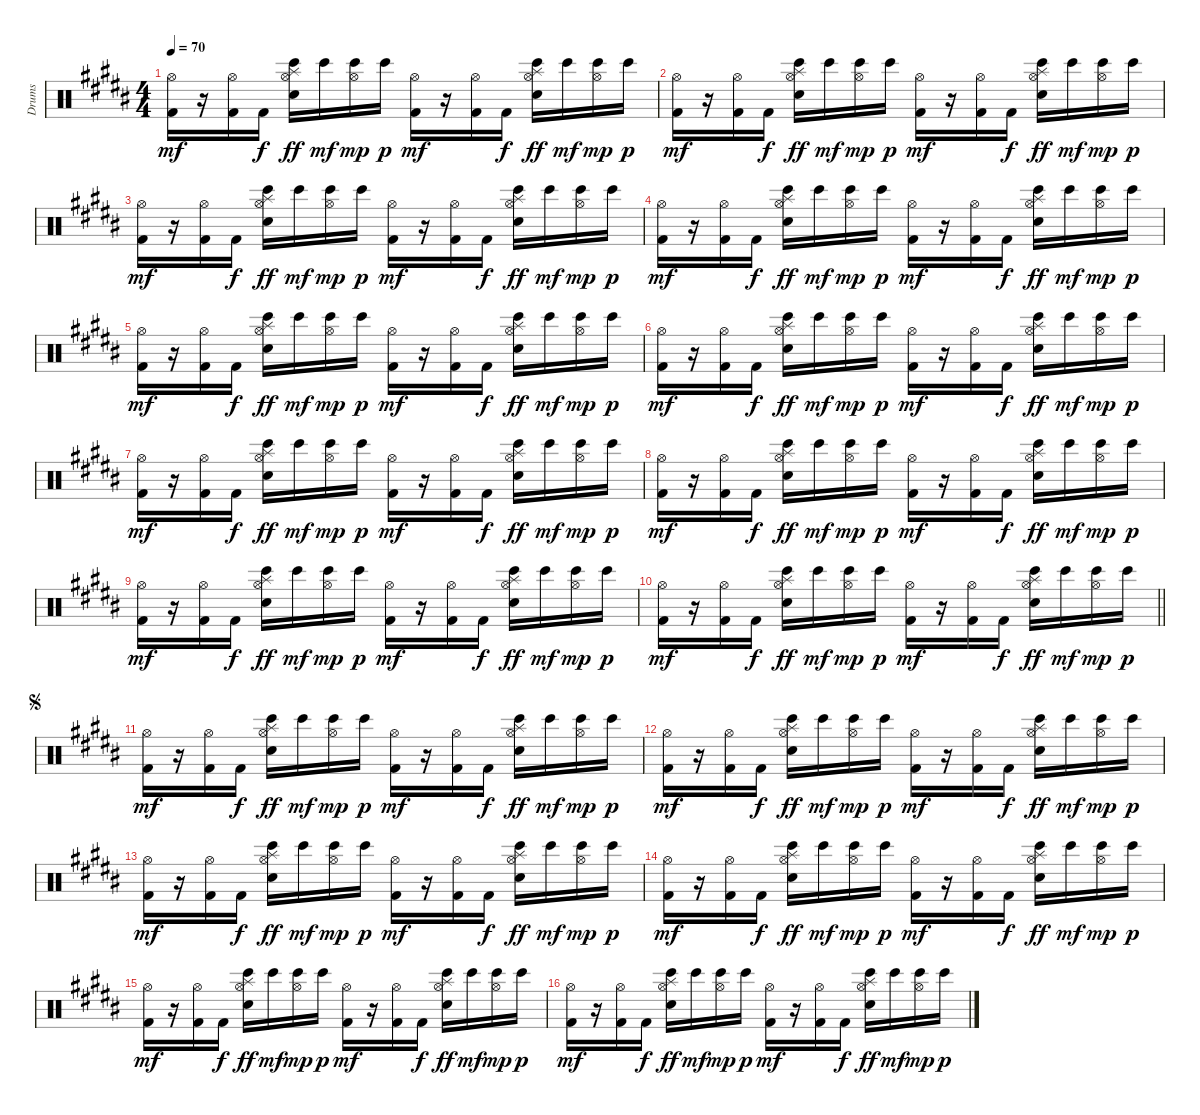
\track ("Drums" "Drums") {instrument percussion}
\staff {score}
\articulation defaults
\ts (4 4)
\tempo 70
\clef neutral
\ks b
("Hi-Hat (open)" "Kick (hit) 2").16{dy mf} r.16 ("Hi-Hat (open)" "Kick (hit) 2").16 "Kick (hit) 2".16{dy f} ("Hi-Hat (open)" "Splash (hit)" "Snare (hit) 2" "Bongo High (hit)").16{dy ff} "Bongo High (hit)".16{dy mf} ("Hi-Hat (open)" "Bongo High (hit)").16{dy mp} "Bongo High (hit)".16{dy p} ("Hi-Hat (open)" "Kick (hit) 2").16{dy mf} r.16 ("Hi-Hat (open)" "Kick (hit) 2").16 "Kick (hit) 2".16{dy f} ("Hi-Hat (open)" "Splash (hit)" "Snare (hit) 2" "Bongo High (hit)").16{dy ff} "Bongo High (hit)".16{dy mf} ("Hi-Hat (open)" "Bongo High (hit)").16{dy mp} "Bongo High (hit)".16{dy p} |
("Hi-Hat (open)" "Kick (hit) 2").16{dy mf} r.16 ("Hi-Hat (open)" "Kick (hit) 2").16 "Kick (hit) 2".16{dy f} ("Hi-Hat (open)" "Splash (hit)" "Snare (hit) 2" "Bongo High (hit)").16{dy ff} "Bongo High (hit)".16{dy mf} ("Hi-Hat (open)" "Bongo High (hit)").16{dy mp} "Bongo High (hit)".16{dy p} ("Hi-Hat (open)" "Kick (hit) 2").16{dy mf} r.16 ("Hi-Hat (open)" "Kick (hit) 2").16 "Kick (hit) 2".16{dy f} ("Hi-Hat (open)" "Splash (hit)" "Snare (hit) 2" "Bongo High (hit)").16{dy ff} "Bongo High (hit)".16{dy mf} ("Hi-Hat (open)" "Bongo High (hit)").16{dy mp} "Bongo High (hit)".16{dy p} |
("Hi-Hat (open)" "Kick (hit) 2").16{dy mf} r.16 ("Hi-Hat (open)" "Kick (hit) 2").16 "Kick (hit) 2".16{dy f} ("Hi-Hat (open)" "Splash (hit)" "Snare (hit) 2" "Bongo High (hit)").16{dy ff} "Bongo High (hit)".16{dy mf} ("Hi-Hat (open)" "Bongo High (hit)").16{dy mp} "Bongo High (hit)".16{dy p} ("Hi-Hat (open)" "Kick (hit) 2").16{dy mf} r.16 ("Hi-Hat (open)" "Kick (hit) 2").16 "Kick (hit) 2".16{dy f} ("Hi-Hat (open)" "Splash (hit)" "Snare (hit) 2" "Bongo High (hit)").16{dy ff} "Bongo High (hit)".16{dy mf} ("Hi-Hat (open)" "Bongo High (hit)").16{dy mp} "Bongo High (hit)".16{dy p} |
("Hi-Hat (open)" "Kick (hit) 2").16{dy mf} r.16 ("Hi-Hat (open)" "Kick (hit) 2").16 "Kick (hit) 2".16{dy f} ("Hi-Hat (open)" "Splash (hit)" "Snare (hit) 2" "Bongo High (hit)").16{dy ff} "Bongo High (hit)".16{dy mf} ("Hi-Hat (open)" "Bongo High (hit)").16{dy mp} "Bongo High (hit)".16{dy p} ("Hi-Hat (open)" "Kick (hit) 2").16{dy mf} r.16 ("Hi-Hat (open)" "Kick (hit) 2").16 "Kick (hit) 2".16{dy f} ("Hi-Hat (open)" "Splash (hit)" "Snare (hit) 2" "Bongo High (hit)").16{dy ff} "Bongo High (hit)".16{dy mf} ("Hi-Hat (open)" "Bongo High (hit)").16{dy mp} "Bongo High (hit)".16{dy p} |
("Hi-Hat (open)" "Kick (hit) 2").16{dy mf} r.16 ("Hi-Hat (open)" "Kick (hit) 2").16 "Kick (hit) 2".16{dy f} ("Hi-Hat (open)" "Splash (hit)" "Snare (hit) 2" "Bongo High (hit)").16{dy ff} "Bongo High (hit)".16{dy mf} ("Hi-Hat (open)" "Bongo High (hit)").16{dy mp} "Bongo High (hit)".16{dy p} ("Hi-Hat (open)" "Kick (hit) 2").16{dy mf} r.16 ("Hi-Hat (open)" "Kick (hit) 2").16 "Kick (hit) 2".16{dy f} ("Hi-Hat (open)" "Splash (hit)" "Snare (hit) 2" "Bongo High (hit)").16{dy ff} "Bongo High (hit)".16{dy mf} ("Hi-Hat (open)" "Bongo High (hit)").16{dy mp} "Bongo High (hit)".16{dy p} |
("Hi-Hat (open)" "Kick (hit) 2").16{dy mf} r.16 ("Hi-Hat (open)" "Kick (hit) 2").16 "Kick (hit) 2".16{dy f} ("Hi-Hat (open)" "Splash (hit)" "Snare (hit) 2" "Bongo High (hit)").16{dy ff} "Bongo High (hit)".16{dy mf} ("Hi-Hat (open)" "Bongo High (hit)").16{dy mp} "Bongo High (hit)".16{dy p} ("Hi-Hat (open)" "Kick (hit) 2").16{dy mf} r.16 ("Hi-Hat (open)" "Kick (hit) 2").16 "Kick (hit) 2".16{dy f} ("Hi-Hat (open)" "Splash (hit)" "Snare (hit) 2" "Bongo High (hit)").16{dy ff} "Bongo High (hit)".16{dy mf} ("Hi-Hat (open)" "Bongo High (hit)").16{dy mp} "Bongo High (hit)".16{dy p} |
("Hi-Hat (open)" "Kick (hit) 2").16{dy mf} r.16 ("Hi-Hat (open)" "Kick (hit) 2").16 "Kick (hit) 2".16{dy f} ("Hi-Hat (open)" "Splash (hit)" "Snare (hit) 2" "Bongo High (hit)").16{dy ff} "Bongo High (hit)".16{dy mf} ("Hi-Hat (open)" "Bongo High (hit)").16{dy mp} "Bongo High (hit)".16{dy p} ("Hi-Hat (open)" "Kick (hit) 2").16{dy mf} r.16 ("Hi-Hat (open)" "Kick (hit) 2").16 "Kick (hit) 2".16{dy f} ("Hi-Hat (open)" "Splash (hit)" "Snare (hit) 2" "Bongo High (hit)").16{dy ff} "Bongo High (hit)".16{dy mf} ("Hi-Hat (open)" "Bongo High (hit)").16{dy mp} "Bongo High (hit)".16{dy p} |
("Hi-Hat (open)" "Kick (hit) 2").16{dy mf} r.16 ("Hi-Hat (open)" "Kick (hit) 2").16 "Kick (hit) 2".16{dy f} ("Hi-Hat (open)" "Splash (hit)" "Snare (hit) 2" "Bongo High (hit)").16{dy ff} "Bongo High (hit)".16{dy mf} ("Hi-Hat (open)" "Bongo High (hit)").16{dy mp} "Bongo High (hit)".16{dy p} ("Hi-Hat (open)" "Kick (hit) 2").16{dy mf} r.16 ("Hi-Hat (open)" "Kick (hit) 2").16 "Kick (hit) 2".16{dy f} ("Hi-Hat (open)" "Splash (hit)" "Snare (hit) 2" "Bongo High (hit)").16{dy ff} "Bongo High (hit)".16{dy mf} ("Hi-Hat (open)" "Bongo High (hit)").16{dy mp} "Bongo High (hit)".16{dy p} |
("Hi-Hat (open)" "Kick (hit) 2").16{dy mf} r.16 ("Hi-Hat (open)" "Kick (hit) 2").16 "Kick (hit) 2".16{dy f} ("Hi-Hat (open)" "Splash (hit)" "Snare (hit) 2" "Bongo High (hit)").16{dy ff} "Bongo High (hit)".16{dy mf} ("Hi-Hat (open)" "Bongo High (hit)").16{dy mp} "Bongo High (hit)".16{dy p} ("Hi-Hat (open)" "Kick (hit) 2").16{dy mf} r.16 ("Hi-Hat (open)" "Kick (hit) 2").16 "Kick (hit) 2".16{dy f} ("Hi-Hat (open)" "Splash (hit)" "Snare (hit) 2" "Bongo High (hit)").16{dy ff} "Bongo High (hit)".16{dy mf} ("Hi-Hat (open)" "Bongo High (hit)").16{dy mp} "Bongo High (hit)".16{dy p} |
\barLineRight lightlight
("Hi-Hat (open)" "Kick (hit) 2").16{dy mf} r.16 ("Hi-Hat (open)" "Kick (hit) 2").16 "Kick (hit) 2".16{dy f} ("Hi-Hat (open)" "Splash (hit)" "Snare (hit) 2" "Bongo High (hit)").16{dy ff} "Bongo High (hit)".16{dy mf} ("Hi-Hat (open)" "Bongo High (hit)").16{dy mp} "Bongo High (hit)".16{dy p} ("Hi-Hat (open)" "Kick (hit) 2").16{dy mf} r.16 ("Hi-Hat (open)" "Kick (hit) 2").16 "Kick (hit) 2".16{dy f} ("Hi-Hat (open)" "Splash (hit)" "Snare (hit) 2" "Bongo High (hit)").16{dy ff} "Bongo High (hit)".16{dy mf} ("Hi-Hat (open)" "Bongo High (hit)").16{dy mp} "Bongo High (hit)".16{dy p} |
\jump segno
("Hi-Hat (open)" "Kick (hit) 2").16{dy mf} r.16 ("Hi-Hat (open)" "Kick (hit) 2").16 "Kick (hit) 2".16{dy f} ("Hi-Hat (open)" "Splash (hit)" "Snare (hit) 2" "Bongo High (hit)").16{dy ff} "Bongo High (hit)".16{dy mf} ("Hi-Hat (open)" "Bongo High (hit)").16{dy mp} "Bongo High (hit)".16{dy p} ("Hi-Hat (open)" "Kick (hit) 2").16{dy mf} r.16 ("Hi-Hat (open)" "Kick (hit) 2").16 "Kick (hit) 2".16{dy f} ("Hi-Hat (open)" "Splash (hit)" "Snare (hit) 2" "Bongo High (hit)").16{dy ff} "Bongo High (hit)".16{dy mf} ("Hi-Hat (open)" "Bongo High (hit)").16{dy mp} "Bongo High (hit)".16{dy p} |
("Hi-Hat (open)" "Kick (hit) 2").16{dy mf} r.16 ("Hi-Hat (open)" "Kick (hit) 2").16 "Kick (hit) 2".16{dy f} ("Hi-Hat (open)" "Splash (hit)" "Snare (hit) 2" "Bongo High (hit)").16{dy ff} "Bongo High (hit)".16{dy mf} ("Hi-Hat (open)" "Bongo High (hit)").16{dy mp} "Bongo High (hit)".16{dy p} ("Hi-Hat (open)" "Kick (hit) 2").16{dy mf} r.16 ("Hi-Hat (open)" "Kick (hit) 2").16 "Kick (hit) 2".16{dy f} ("Hi-Hat (open)" "Splash (hit)" "Snare (hit) 2" "Bongo High (hit)").16{dy ff} "Bongo High (hit)".16{dy mf} ("Hi-Hat (open)" "Bongo High (hit)").16{dy mp} "Bongo High (hit)".16{dy p} |
("Hi-Hat (open)" "Kick (hit) 2").16{dy mf} r.16 ("Hi-Hat (open)" "Kick (hit) 2").16 "Kick (hit) 2".16{dy f} ("Hi-Hat (open)" "Splash (hit)" "Snare (hit) 2" "Bongo High (hit)").16{dy ff} "Bongo High (hit)".16{dy mf} ("Hi-Hat (open)" "Bongo High (hit)").16{dy mp} "Bongo High (hit)".16{dy p} ("Hi-Hat (open)" "Kick (hit) 2").16{dy mf} r.16 ("Hi-Hat (open)" "Kick (hit) 2").16 "Kick (hit) 2".16{dy f} ("Hi-Hat (open)" "Splash (hit)" "Snare (hit) 2" "Bongo High (hit)").16{dy ff} "Bongo High (hit)".16{dy mf} ("Hi-Hat (open)" "Bongo High (hit)").16{dy mp} "Bongo High (hit)".16{dy p} |
("Hi-Hat (open)" "Kick (hit) 2").16{dy mf} r.16 ("Hi-Hat (open)" "Kick (hit) 2").16 "Kick (hit) 2".16{dy f} ("Hi-Hat (open)" "Splash (hit)" "Snare (hit) 2" "Bongo High (hit)").16{dy ff} "Bongo High (hit)".16{dy mf} ("Hi-Hat (open)" "Bongo High (hit)").16{dy mp} "Bongo High (hit)".16{dy p} ("Hi-Hat (open)" "Kick (hit) 2").16{dy mf} r.16 ("Hi-Hat (open)" "Kick (hit) 2").16 "Kick (hit) 2".16{dy f} ("Hi-Hat (open)" "Splash (hit)" "Snare (hit) 2" "Bongo High (hit)").16{dy ff} "Bongo High (hit)".16{dy mf} ("Hi-Hat (open)" "Bongo High (hit)").16{dy mp} "Bongo High (hit)".16{dy p} |
("Hi-Hat (open)" "Kick (hit) 2").16{dy mf} r.16 ("Hi-Hat (open)" "Kick (hit) 2").16 "Kick (hit) 2".16{dy f} ("Hi-Hat (open)" "Splash (hit)" "Snare (hit) 2" "Bongo High (hit)").16{dy ff} "Bongo High (hit)".16{dy mf} ("Hi-Hat (open)" "Bongo High (hit)").16{dy mp} "Bongo High (hit)".16{dy p} ("Hi-Hat (open)" "Kick (hit) 2").16{dy mf} r.16 ("Hi-Hat (open)" "Kick (hit) 2").16 "Kick (hit) 2".16{dy f} ("Hi-Hat (open)" "Splash (hit)" "Snare (hit) 2" "Bongo High (hit)").16{dy ff} "Bongo High (hit)".16{dy mf} ("Hi-Hat (open)" "Bongo High (hit)").16{dy mp} "Bongo High (hit)".16{dy p} |
("Hi-Hat (open)" "Kick (hit) 2").16{dy mf} r.16 ("Hi-Hat (open)" "Kick (hit) 2").16 "Kick (hit) 2".16{dy f} ("Hi-Hat (open)" "Splash (hit)" "Snare (hit) 2" "Bongo High (hit)").16{dy ff} "Bongo High (hit)".16{dy mf} ("Hi-Hat (open)" "Bongo High (hit)").16{dy mp} "Bongo High (hit)".16{dy p} ("Hi-Hat (open)" "Kick (hit) 2").16{dy mf} r.16 ("Hi-Hat (open)" "Kick (hit) 2").16 "Kick (hit) 2".16{dy f} ("Hi-Hat (open)" "Splash (hit)" "Snare (hit) 2" "Bongo High (hit)").16{dy ff} "Bongo High (hit)".16{dy mf} ("Hi-Hat (open)" "Bongo High (hit)").16{dy mp} "Bongo High (hit)".16{dy p}
